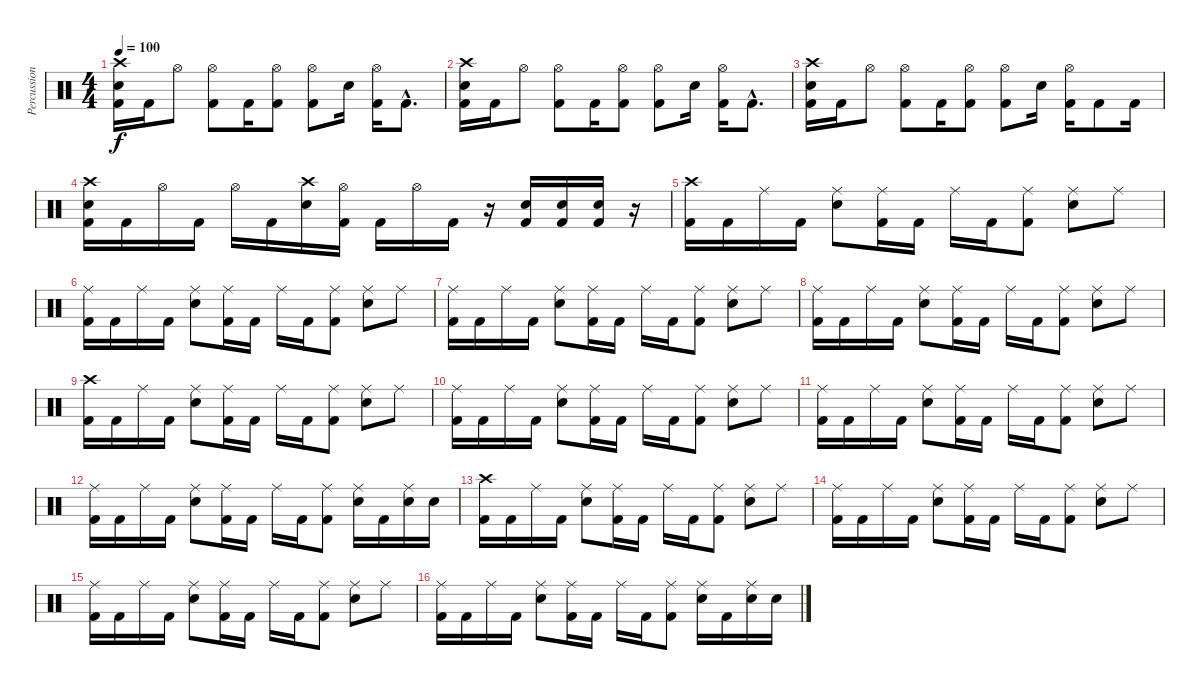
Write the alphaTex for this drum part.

\track ("Percussions" "Percussion") {instrument percussion}
\staff {score}
\articulation defaults
\ts (4 4)
\tempo 100
\clef neutral
\ks c
("Crash high (hit)" "Electric Snare (hit)" "Kick (hit) 2").16{dy f} "Kick (hit) 2".16 "Hi-Hat (open)".8 ("Hi-Hat (open)" "Kick (hit) 2").8 "Kick (hit) 2".16 ("Hi-Hat (open)" "Kick (hit) 2").8 ("Hi-Hat (open)" "Kick (hit) 2").8 "Electric Snare (hit)".16 ("Hi-Hat (open)" "Kick (hit) 2").16 "Kick (hit) 2"{hac}.8{d} |
("Crash high (hit)" "Electric Snare (hit)" "Kick (hit) 2").16 "Kick (hit) 2".16 "Hi-Hat (open)".8 ("Hi-Hat (open)" "Kick (hit) 2").8 "Kick (hit) 2".16 ("Hi-Hat (open)" "Kick (hit) 2").8 ("Hi-Hat (open)" "Kick (hit) 2").8 "Electric Snare (hit)".16 ("Hi-Hat (open)" "Kick (hit) 2").16 "Kick (hit) 2"{hac}.8{d} |
("Crash high (hit)" "Electric Snare (hit)" "Kick (hit) 2").16 "Kick (hit) 2".16 "Hi-Hat (open)".8 ("Hi-Hat (open)" "Kick (hit) 2").8 "Kick (hit) 2".16 ("Hi-Hat (open)" "Kick (hit) 2").8 ("Hi-Hat (open)" "Kick (hit) 2").8 "Electric Snare (hit)".16 ("Hi-Hat (open)" "Kick (hit) 2").16 "Kick (hit) 2".8 "Kick (hit) 2".16 |
("Crash high (hit)" "Electric Snare (hit)" "Kick (hit) 2").16 "Kick (hit) 2".16 "Hi-Hat (open)".16 "Kick (hit) 2".16 "Hi-Hat (open)".16 "Kick (hit) 2".16 ("Crash high (hit)" "Electric Snare (hit)").16 ("Hi-Hat (open)" "Kick (hit) 2").16 "Kick (hit) 2".16 "Hi-Hat (open)".16 "Kick (hit) 2".16 r.16 ("Electric Snare (hit)" "Kick (hit) 2").16 ("Electric Snare (hit)" "Kick (hit) 2").16 ("Electric Snare (hit)" "Kick (hit) 2").16 r.16 |
("Crash high (hit)" "Kick (hit) 2").16 "Kick (hit) 2".16 "Ride (middle)".16 "Kick (hit) 2".16 ("Ride (middle)" "Electric Snare (hit)").8 ("Ride (middle)" "Kick (hit) 2").16 "Kick (hit) 2".16 "Ride (middle)".16 "Kick (hit) 2".16 ("Ride (middle)" "Kick (hit) 2").8 ("Ride (middle)" "Electric Snare (hit)").8 "Ride (middle)".8 |
("Ride (middle)" "Kick (hit) 2").16 "Kick (hit) 2".16 "Ride (middle)".16 "Kick (hit) 2".16 ("Ride (middle)" "Electric Snare (hit)").8 ("Ride (middle)" "Kick (hit) 2").16 "Kick (hit) 2".16 "Ride (middle)".16 "Kick (hit) 2".16 ("Ride (middle)" "Kick (hit) 2").8 ("Ride (middle)" "Electric Snare (hit)").8 "Ride (middle)".8 |
("Ride (middle)" "Kick (hit) 2").16 "Kick (hit) 2".16 "Ride (middle)".16 "Kick (hit) 2".16 ("Ride (middle)" "Electric Snare (hit)").8 ("Ride (middle)" "Kick (hit) 2").16 "Kick (hit) 2".16 "Ride (middle)".16 "Kick (hit) 2".16 ("Ride (middle)" "Kick (hit) 2").8 ("Ride (middle)" "Electric Snare (hit)").8 "Ride (middle)".8 |
("Ride (middle)" "Kick (hit) 2").16 "Kick (hit) 2".16 "Ride (middle)".16 "Kick (hit) 2".16 ("Ride (middle)" "Electric Snare (hit)").8 ("Ride (middle)" "Kick (hit) 2").16 "Kick (hit) 2".16 "Ride (middle)".16 "Kick (hit) 2".16 ("Ride (middle)" "Kick (hit) 2").8 ("Ride (middle)" "Electric Snare (hit)").8 "Ride (middle)".8 |
("Crash high (hit)" "Kick (hit) 2").16 "Kick (hit) 2".16 "Ride (middle)".16 "Kick (hit) 2".16 ("Ride (middle)" "Electric Snare (hit)").8 ("Ride (middle)" "Kick (hit) 2").16 "Kick (hit) 2".16 "Ride (middle)".16 "Kick (hit) 2".16 ("Ride (middle)" "Kick (hit) 2").8 ("Ride (middle)" "Electric Snare (hit)").8 "Ride (middle)".8 |
("Ride (middle)" "Kick (hit) 2").16 "Kick (hit) 2".16 "Ride (middle)".16 "Kick (hit) 2".16 ("Ride (middle)" "Electric Snare (hit)").8 ("Ride (middle)" "Kick (hit) 2").16 "Kick (hit) 2".16 "Ride (middle)".16 "Kick (hit) 2".16 ("Ride (middle)" "Kick (hit) 2").8 ("Ride (middle)" "Electric Snare (hit)").8 "Ride (middle)".8 |
("Ride (middle)" "Kick (hit) 2").16 "Kick (hit) 2".16 "Ride (middle)".16 "Kick (hit) 2".16 ("Ride (middle)" "Electric Snare (hit)").8 ("Ride (middle)" "Kick (hit) 2").16 "Kick (hit) 2".16 "Ride (middle)".16 "Kick (hit) 2".16 ("Ride (middle)" "Kick (hit) 2").8 ("Ride (middle)" "Electric Snare (hit)").8 "Ride (middle)".8 |
("Ride (middle)" "Kick (hit) 2").16 "Kick (hit) 2".16 "Ride (middle)".16 "Kick (hit) 2".16 ("Ride (middle)" "Electric Snare (hit)").8 ("Ride (middle)" "Kick (hit) 2").16 "Kick (hit) 2".16 "Ride (middle)".16 "Kick (hit) 2".16 ("Ride (middle)" "Kick (hit) 2").8 ("Ride (middle)" "Electric Snare (hit)").16 "Kick (hit) 2".16 ("Ride (middle)" "Electric Snare (hit)").16 "Electric Snare (hit)".16 |
("Crash high (hit)" "Kick (hit) 2").16 "Kick (hit) 2".16 "Ride (middle)".16 "Kick (hit) 2".16 ("Ride (middle)" "Electric Snare (hit)").8 ("Ride (middle)" "Kick (hit) 2").16 "Kick (hit) 2".16 "Ride (middle)".16 "Kick (hit) 2".16 ("Ride (middle)" "Kick (hit) 2").8 ("Ride (middle)" "Electric Snare (hit)").8 "Ride (middle)".8 |
("Ride (middle)" "Kick (hit) 2").16 "Kick (hit) 2".16 "Ride (middle)".16 "Kick (hit) 2".16 ("Ride (middle)" "Electric Snare (hit)").8 ("Ride (middle)" "Kick (hit) 2").16 "Kick (hit) 2".16 "Ride (middle)".16 "Kick (hit) 2".16 ("Ride (middle)" "Kick (hit) 2").8 ("Ride (middle)" "Electric Snare (hit)").8 "Ride (middle)".8 |
("Ride (middle)" "Kick (hit) 2").16 "Kick (hit) 2".16 "Ride (middle)".16 "Kick (hit) 2".16 ("Ride (middle)" "Electric Snare (hit)").8 ("Ride (middle)" "Kick (hit) 2").16 "Kick (hit) 2".16 "Ride (middle)".16 "Kick (hit) 2".16 ("Ride (middle)" "Kick (hit) 2").8 ("Ride (middle)" "Electric Snare (hit)").8 "Ride (middle)".8 |
("Ride (middle)" "Kick (hit) 2").16 "Kick (hit) 2".16 "Ride (middle)".16 "Kick (hit) 2".16 ("Ride (middle)" "Electric Snare (hit)").8 ("Ride (middle)" "Kick (hit) 2").16 "Kick (hit) 2".16 "Ride (middle)".16 "Kick (hit) 2".16 ("Ride (middle)" "Kick (hit) 2").8 ("Ride (middle)" "Electric Snare (hit)").16 "Kick (hit) 2".16 ("Ride (middle)" "Electric Snare (hit)").16 "Electric Snare (hit)".16
